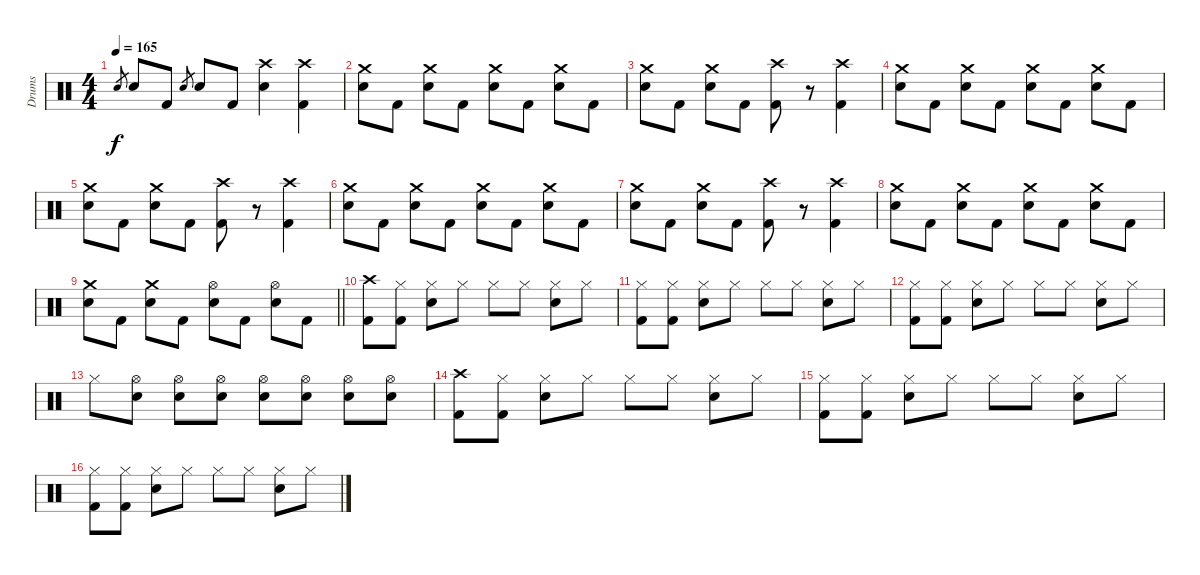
\track ("Drums" "Drums") {instrument percussion}
\staff {score}
\articulation defaults
\ts (4 4)
\tempo 165
\clef neutral
\ks c "Electric Snare (hit)".8{gr dy f} "Electric Snare (hit)".8 "Kick (hit) 2".8 "Electric Snare (hit)".8{gr} "Electric Snare (hit)".8 "Kick (hit) 2".8
("Crash high (hit)" "Electric Snare (hit)").4 ("Crash high (hit)" "Kick (hit) 2").4 |
("Crash medium (hit)" "Electric Snare (hit)").8 "Kick (hit) 2".8 ("Crash medium (hit)" "Electric Snare (hit)").8 "Kick (hit) 2".8 ("Crash medium (hit)" "Electric Snare (hit)").8 "Kick (hit) 2".8 ("Crash medium (hit)" "Electric Snare (hit)").8 "Kick (hit) 2".8 |
("Crash medium (hit)" "Electric Snare (hit)").8 "Kick (hit) 2".8 ("Crash medium (hit)" "Electric Snare (hit)").8 "Kick (hit) 2".8 ("Crash high (hit)" "Kick (hit) 2").8 r.8 ("Crash high (hit)" "Kick (hit) 2").4 |
("Crash medium (hit)" "Electric Snare (hit)").8 "Kick (hit) 2".8 ("Crash medium (hit)" "Electric Snare (hit)").8 "Kick (hit) 2".8 ("Crash medium (hit)" "Electric Snare (hit)").8 "Kick (hit) 2".8 ("Crash medium (hit)" "Electric Snare (hit)").8 "Kick (hit) 2".8 |
("Crash medium (hit)" "Electric Snare (hit)").8 "Kick (hit) 2".8 ("Crash medium (hit)" "Electric Snare (hit)").8 "Kick (hit) 2".8 ("Crash high (hit)" "Kick (hit) 2").8 r.8 ("Crash high (hit)" "Kick (hit) 2").4 |
("Crash medium (hit)" "Electric Snare (hit)").8 "Kick (hit) 2".8 ("Crash medium (hit)" "Electric Snare (hit)").8 "Kick (hit) 2".8 ("Crash medium (hit)" "Electric Snare (hit)").8 "Kick (hit) 2".8 ("Crash medium (hit)" "Electric Snare (hit)").8 "Kick (hit) 2".8 |
("Crash medium (hit)" "Electric Snare (hit)").8 "Kick (hit) 2".8 ("Crash medium (hit)" "Electric Snare (hit)").8 "Kick (hit) 2".8 ("Crash high (hit)" "Kick (hit) 2").8 r.8 ("Crash high (hit)" "Kick (hit) 2").4 |
("Crash medium (hit)" "Electric Snare (hit)").8 "Kick (hit) 2".8 ("Crash medium (hit)" "Electric Snare (hit)").8 "Kick (hit) 2".8 ("Crash medium (hit)" "Electric Snare (hit)").8 "Kick (hit) 2".8 ("Crash medium (hit)" "Electric Snare (hit)").8 "Kick (hit) 2".8 |
\barLineRight lightlight
("Crash medium (hit)" "Electric Snare (hit)").8 "Kick (hit) 2".8 ("Crash medium (hit)" "Electric Snare (hit)").8 "Kick (hit) 2".8 ("Hi-Hat (open)" "Electric Snare (hit)").8 "Kick (hit) 2".8 ("Hi-Hat (open)" "Electric Snare (hit)").8 "Kick (hit) 2".8 |
\section ("" "")
("Crash high (hit)" "Kick (hit) 2").8 ("Hi-Hat (closed)" "Kick (hit) 2").8 ("Hi-Hat (closed)" "Electric Snare (hit)").8 "Hi-Hat (closed)".8 "Hi-Hat (closed)".8 "Hi-Hat (closed)".8 ("Hi-Hat (closed)" "Electric Snare (hit)").8 "Hi-Hat (closed)".8 |
("Hi-Hat (closed)" "Kick (hit) 2").8 ("Hi-Hat (closed)" "Kick (hit) 2").8 ("Hi-Hat (closed)" "Electric Snare (hit)").8 "Hi-Hat (closed)".8 "Hi-Hat (closed)".8 "Hi-Hat (closed)".8 ("Hi-Hat (closed)" "Electric Snare (hit)").8 "Hi-Hat (closed)".8 |
("Hi-Hat (closed)" "Kick (hit) 2").8 ("Hi-Hat (closed)" "Kick (hit) 2").8 ("Hi-Hat (closed)" "Electric Snare (hit)").8 "Hi-Hat (closed)".8 "Hi-Hat (closed)".8 "Hi-Hat (closed)".8 ("Hi-Hat (closed)" "Electric Snare (hit)").8 "Hi-Hat (closed)".8 |
"Hi-Hat (closed)".8 ("Hi-Hat (open)" "Electric Snare (hit)").8 ("Hi-Hat (open)" "Electric Snare (hit)").8 ("Hi-Hat (open)" "Electric Snare (hit)").8 ("Hi-Hat (open)" "Electric Snare (hit)").8 ("Hi-Hat (open)" "Electric Snare (hit)").8 ("Hi-Hat (open)" "Electric Snare (hit)").8 ("Hi-Hat (open)" "Electric Snare (hit)").8 |
("Crash high (hit)" "Kick (hit) 2").8 ("Hi-Hat (closed)" "Kick (hit) 2").8 ("Hi-Hat (closed)" "Electric Snare (hit)").8 "Hi-Hat (closed)".8 "Hi-Hat (closed)".8 "Hi-Hat (closed)".8 ("Hi-Hat (closed)" "Electric Snare (hit)").8 "Hi-Hat (closed)".8 |
("Hi-Hat (closed)" "Kick (hit) 2").8 ("Hi-Hat (closed)" "Kick (hit) 2").8 ("Hi-Hat (closed)" "Electric Snare (hit)").8 "Hi-Hat (closed)".8 "Hi-Hat (closed)".8 "Hi-Hat (closed)".8 ("Hi-Hat (closed)" "Electric Snare (hit)").8 "Hi-Hat (closed)".8 |
("Hi-Hat (closed)" "Kick (hit) 2").8 ("Hi-Hat (closed)" "Kick (hit) 2").8 ("Hi-Hat (closed)" "Electric Snare (hit)").8 "Hi-Hat (closed)".8 "Hi-Hat (closed)".8 "Hi-Hat (closed)".8 ("Hi-Hat (closed)" "Electric Snare (hit)").8 "Hi-Hat (closed)".8
